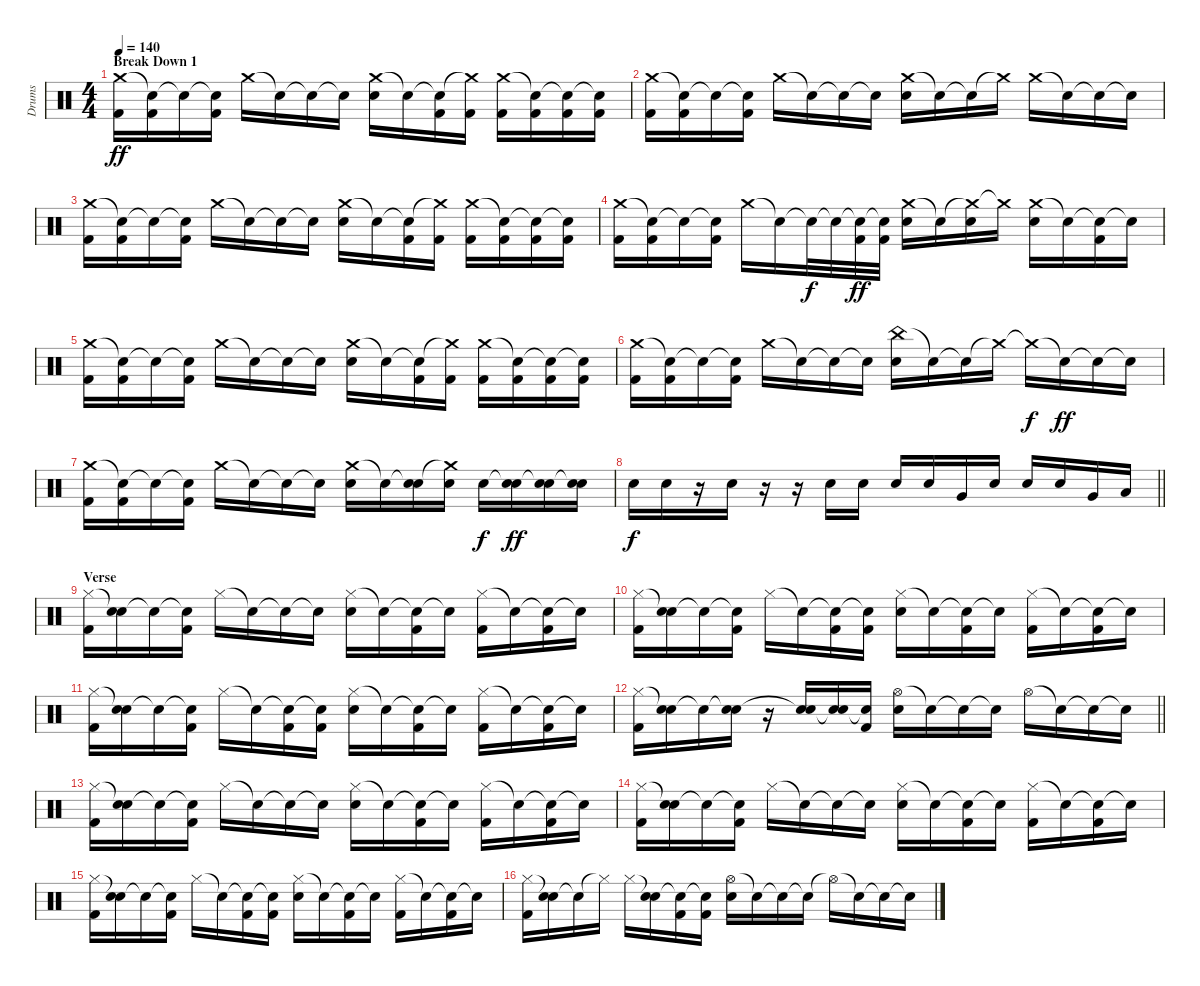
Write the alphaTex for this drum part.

\track ("Drums" "Drums") {instrument percussion}
\staff {score}
\articulation defaults
\ts (4 4)
\section ("" "Break Down 1")
\tempo 140
\clef neutral
\ks c
("Crash medium (hit)" "Kick (hit) 2").16{dy ff balance 8} ("Snare (hit)"{t} "Kick (hit) 2").16 "Snare (hit)"{t}.16 ("Snare (hit)"{t} "Kick (hit) 2").16 "Crash medium (hit)".16 "Snare (hit)"{t}.16 "Snare (hit)"{t}.16 "Snare (hit)"{t}.16 ("Crash medium (hit)" "Electric Snare (hit)").16 "Snare (hit)"{t}.16 ("Snare (hit)"{t} "Kick (hit) 2").16 ("Crash medium (hit)"{t} "Kick (hit) 2").16 ("Crash medium (hit)" "Kick (hit) 2").16 ("Snare (hit)"{t} "Kick (hit) 2").16 ("Snare (hit)"{t} "Kick (hit) 2").16 ("Snare (hit)"{t} "Kick (hit) 2").16 |
("Crash medium (hit)" "Kick (hit) 2").16 ("Snare (hit)"{t} "Kick (hit) 2").16 "Snare (hit)"{t}.16 ("Snare (hit)"{t} "Kick (hit) 2").16 "Crash medium (hit)".16 "Snare (hit)"{t}.16 "Snare (hit)"{t}.16 "Snare (hit)"{t}.16 ("Crash medium (hit)" "Electric Snare (hit)").16 "Snare (hit)"{t}.16 "Snare (hit)"{t}.16 "Crash medium (hit)"{t}.16 "Crash medium (hit)".16 "Snare (hit)"{t}.16 "Snare (hit)"{t}.16 "Snare (hit)"{t}.16 |
("Crash medium (hit)" "Kick (hit) 2").16 ("Snare (hit)"{t} "Kick (hit) 2").16 "Snare (hit)"{t}.16 ("Snare (hit)"{t} "Kick (hit) 2").16 "Crash medium (hit)".16 "Snare (hit)"{t}.16 "Snare (hit)"{t}.16 "Snare (hit)"{t}.16 ("Crash medium (hit)" "Electric Snare (hit)").16 "Snare (hit)"{t}.16 ("Snare (hit)"{t} "Kick (hit) 2").16 ("Crash medium (hit)"{t} "Kick (hit) 2").16 ("Crash medium (hit)" "Kick (hit) 2").16 ("Snare (hit)"{t} "Kick (hit) 2").16 ("Snare (hit)"{t} "Kick (hit) 2").16 ("Snare (hit)"{t} "Kick (hit) 2").16 |
("Crash medium (hit)" "Kick (hit) 2").16 ("Snare (hit)"{t} "Kick (hit) 2").16 "Snare (hit)"{t}.16 ("Snare (hit)"{t} "Kick (hit) 2").16 "Crash medium (hit)".16 "Snare (hit)"{t}.16 "Snare (hit)"{t}.32{dy f} "Snare (hit)"{t}.32 ("Snare (hit)"{t} "Kick (hit) 2").32{dy ff} ("Snare (hit)"{t} "Kick (hit) 2").32 ("Crash medium (hit)" "Electric Snare (hit)").16 "Snare (hit)"{t}.16 ("Crash medium (hit)"{t} "Electric Snare (hit)").16 "Crash medium (hit)"{t}.16 ("Crash medium (hit)" "Electric Snare (hit)").16 "Snare (hit)"{t}.16 ("Snare (hit)"{t} "Kick (hit) 2").16 "Snare (hit)"{t}.16 |
("Crash medium (hit)" "Kick (hit) 2").16{balance 8} ("Snare (hit)"{t} "Kick (hit) 2").16 "Snare (hit)"{t}.16 ("Snare (hit)"{t} "Kick (hit) 2").16 "Crash medium (hit)".16 "Snare (hit)"{t}.16 "Snare (hit)"{t}.16 "Snare (hit)"{t}.16 ("Crash medium (hit)" "Electric Snare (hit)").16 "Snare (hit)"{t}.16 ("Snare (hit)"{t} "Kick (hit) 2").16 ("Crash medium (hit)"{t} "Kick (hit) 2").16 ("Crash medium (hit)" "Kick (hit) 2").16 ("Snare (hit)"{t} "Kick (hit) 2").16 ("Snare (hit)"{t} "Kick (hit) 2").16 ("Snare (hit)"{t} "Kick (hit) 2").16 |
("Crash medium (hit)" "Kick (hit) 2").16 ("Snare (hit)"{t} "Kick (hit) 2").16 "Snare (hit)"{t}.16 ("Snare (hit)"{t} "Kick (hit) 2").16 "Crash medium (hit)".16 "Snare (hit)"{t}.16 "Snare (hit)"{t}.16 "Snare (hit)"{t}.16 ("China (hit)" "Electric Snare (hit)").16 "Snare (hit)"{t}.16 "Snare (hit)"{t}.16 "Crash medium (hit)"{t}.16 "Crash medium (hit)"{t}.16{dy f} "Snare (hit)"{t}.16{dy ff} "Snare (hit)"{t}.16 "Snare (hit)"{t}.16 |
("Crash medium (hit)" "Kick (hit) 2").16 ("Snare (hit)"{t} "Kick (hit) 2").16 "Snare (hit)"{t}.16 ("Snare (hit)"{t} "Kick (hit) 2").16 "Crash medium (hit)".16 "Snare (hit)"{t}.16 "Snare (hit)"{t}.16 "Snare (hit)"{t}.16 ("Crash medium (hit)" "Electric Snare (hit)").16 "Snare (hit)"{t}.16 ("Snare (hit)"{t} "Electric Snare (hit)").16 ("Crash medium (hit)"{t} "Electric Snare (hit)").16 "Electric Snare (hit)".16{dy f} ("Snare (hit)"{t} "Electric Snare (hit)").16{dy ff} ("Snare (hit)"{t} "Electric Snare (hit)").16 ("Snare (hit)"{t} "Electric Snare (hit)").16 |
\barLineRight lightlight "Electric Snare (hit)".16{dy f} "Electric Snare (hit)".16
r.16 "Electric Snare (hit)".16 r.16 r.16 "Electric Snare (hit)".16 "Electric Snare (hit)".16 "Electric Snare (hit)".16 "Electric Snare (hit)".16 "Very Low Tom (hit)".16 "Electric Snare (hit)".16 "Electric Snare (hit)".16 "Electric Snare (hit)".16 "Very Low Tom (hit)".16 "Low Floor Tom (hit)".16 |
\section ("" "Verse")
("Hi-Hat (closed)" "Kick (hit) 2").16 ("Snare (hit)"{t} "Electric Snare (hit)").16 "Snare (hit)"{t}.16 ("Snare (hit)"{t} "Kick (hit) 2").16 "Hi-Hat (closed)".16 "Snare (hit)"{t}.16 "Snare (hit)"{t}.16 "Snare (hit)"{t}.16 ("Hi-Hat (closed)" "Electric Snare (hit)").16 "Snare (hit)"{t}.16 ("Snare (hit)"{t} "Kick (hit) 2").16 "Snare (hit)"{t}.16 ("Hi-Hat (closed)" "Kick (hit) 2").16 "Snare (hit)"{t}.16 ("Snare (hit)"{t} "Kick (hit) 2").16 "Snare (hit)"{t}.16 |
("Hi-Hat (closed)" "Kick (hit) 2").16 ("Snare (hit)"{t} "Electric Snare (hit)").16 "Snare (hit)"{t}.16 ("Snare (hit)"{t} "Kick (hit) 2").16 "Hi-Hat (closed)".16 "Snare (hit)"{t}.16 ("Snare (hit)"{t} "Kick (hit) 2").16 ("Snare (hit)"{t} "Kick (hit) 2").16 ("Hi-Hat (closed)" "Electric Snare (hit)").16 "Snare (hit)"{t}.16 ("Snare (hit)"{t} "Kick (hit) 2").16 "Snare (hit)"{t}.16 ("Hi-Hat (closed)" "Kick (hit) 2").16 "Snare (hit)"{t}.16 ("Snare (hit)"{t} "Kick (hit) 2").16 "Snare (hit)"{t}.16 |
("Hi-Hat (closed)" "Kick (hit) 2").16 ("Snare (hit)"{t} "Electric Snare (hit)").16 "Snare (hit)"{t}.16 ("Snare (hit)"{t} "Kick (hit) 2").16 "Hi-Hat (closed)".16 "Snare (hit)"{t}.16 ("Snare (hit)"{t} "Kick (hit) 2").16 ("Snare (hit)"{t} "Kick (hit) 2").16 ("Hi-Hat (closed)" "Electric Snare (hit)").16 "Snare (hit)"{t}.16 ("Snare (hit)"{t} "Kick (hit) 2").16 "Snare (hit)"{t}.16 ("Hi-Hat (closed)" "Kick (hit) 2").16 "Snare (hit)"{t}.16 ("Snare (hit)"{t} "Kick (hit) 2").16 "Snare (hit)"{t}.16 |
\barLineRight lightlight
("Hi-Hat (closed)" "Kick (hit) 2").16 ("Snare (hit)"{t} "Electric Snare (hit)").16 "Snare (hit)"{t}.16 ("Snare (hit)"{t} "Electric Snare (hit)").16 r.16 ("Snare (hit)"{t} "Electric Snare (hit)").16 ("Snare (hit)"{t} "Electric Snare (hit)").16 ("Snare (hit)"{t} "Kick (hit) 2").16 ("Hi-Hat (open)" "Electric Snare (hit)").16 "Snare (hit)"{t}.16 "Snare (hit)"{t}.16 "Snare (hit)"{t}.16 "Hi-Hat (open)".16 "Snare (hit)"{t}.16 "Snare (hit)"{t}.16 "Snare (hit)"{t}.16 |
("Hi-Hat (closed)" "Kick (hit) 2").16 ("Snare (hit)"{t} "Electric Snare (hit)").16 "Snare (hit)"{t}.16 ("Snare (hit)"{t} "Kick (hit) 2").16 "Hi-Hat (closed)".16 "Snare (hit)"{t}.16 "Snare (hit)"{t}.16 "Snare (hit)"{t}.16 ("Hi-Hat (closed)" "Electric Snare (hit)").16 "Snare (hit)"{t}.16 ("Snare (hit)"{t} "Kick (hit) 2").16 "Snare (hit)"{t}.16 ("Hi-Hat (closed)" "Kick (hit) 2").16 "Snare (hit)"{t}.16 ("Snare (hit)"{t} "Kick (hit) 2").16 "Snare (hit)"{t}.16 |
("Hi-Hat (closed)" "Kick (hit) 2").16 ("Snare (hit)"{t} "Electric Snare (hit)").16 "Snare (hit)"{t}.16 ("Snare (hit)"{t} "Kick (hit) 2").16 "Hi-Hat (closed)".16 "Snare (hit)"{t}.16 "Snare (hit)"{t}.16 "Snare (hit)"{t}.16 ("Hi-Hat (closed)" "Electric Snare (hit)").16 "Snare (hit)"{t}.16 ("Snare (hit)"{t} "Kick (hit) 2").16 "Snare (hit)"{t}.16 ("Hi-Hat (closed)" "Kick (hit) 2").16 "Snare (hit)"{t}.16 ("Snare (hit)"{t} "Kick (hit) 2").16 "Snare (hit)"{t}.16 |
("Hi-Hat (closed)" "Kick (hit) 2").16 ("Snare (hit)"{t} "Electric Snare (hit)").16 "Snare (hit)"{t}.16 ("Snare (hit)"{t} "Kick (hit) 2").16 "Hi-Hat (closed)".16 "Snare (hit)"{t}.16 ("Snare (hit)"{t} "Kick (hit) 2").16 ("Snare (hit)"{t} "Kick (hit) 2").16 ("Hi-Hat (closed)" "Electric Snare (hit)").16 "Snare (hit)"{t}.16 ("Snare (hit)"{t} "Kick (hit) 2").16 "Snare (hit)"{t}.16 ("Hi-Hat (closed)" "Kick (hit) 2").16 "Snare (hit)"{t}.16 ("Snare (hit)"{t} "Kick (hit) 2").16 "Snare (hit)"{t}.16 |
("Hi-Hat (closed)" "Kick (hit) 2").16 ("Snare (hit)"{t} "Electric Snare (hit)").16 "Snare (hit)"{t}.16 "Hi-Hat (closed)"{t}.16 "Hi-Hat (closed)".16 ("Snare (hit)"{t} "Electric Snare (hit)").16 ("Snare (hit)"{t} "Kick (hit) 2").16 ("Snare (hit)"{t} "Kick (hit) 2").16 ("Hi-Hat (open)" "Electric Snare (hit)").16 "Snare (hit)"{t}.16 "Snare (hit)"{t}.16 "Snare (hit)"{t}.16 "Hi-Hat (open)"{t}.16 "Snare (hit)"{t}.16 "Snare (hit)"{t}.16 "Snare (hit)"{t}.16
